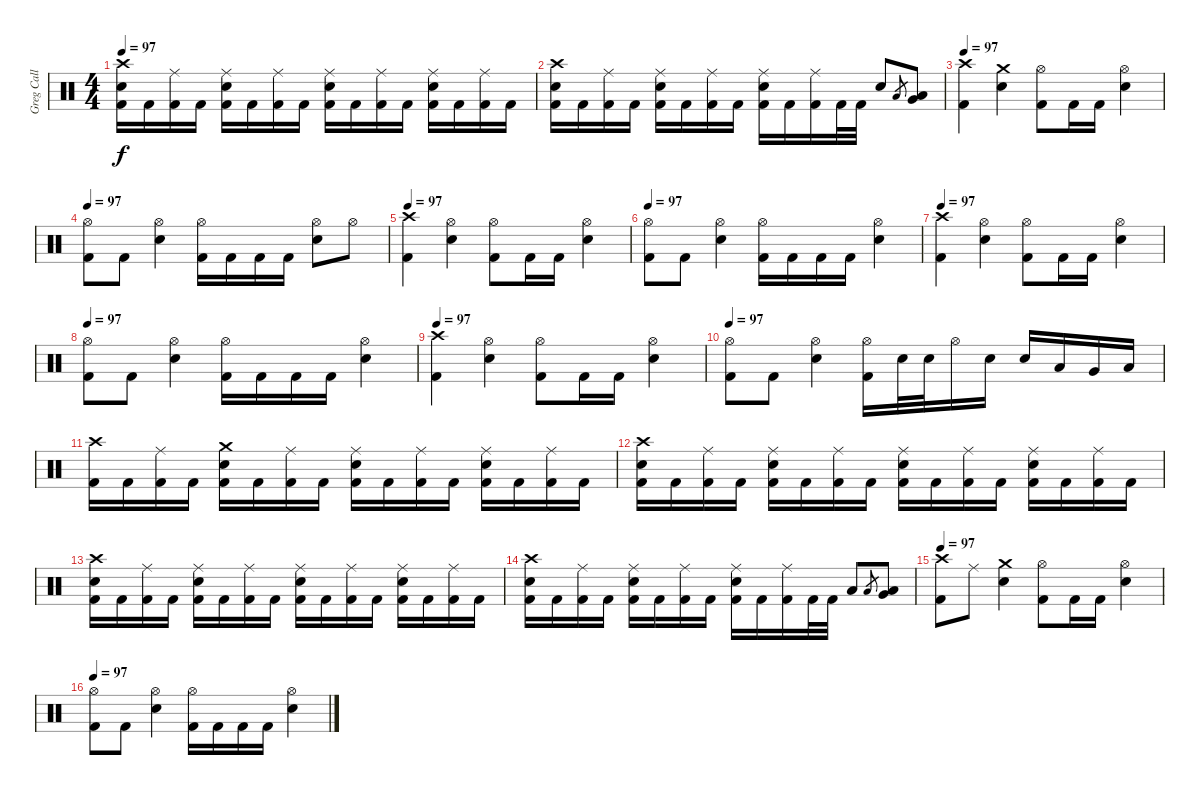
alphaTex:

\track ("Greg Call (Drums)" "Greg Call ") {instrument percussion}
\staff {score}
\articulation defaults
\ts (4 4)
\tempo 97
\clef neutral
\ks c
("Snare (hit) 2" "Crash high (hit)" "Kick (hit) 2").16{dy f} "Kick (hit) 2".16 ("Ride (middle)" "Kick (hit) 2").16 "Kick (hit) 2".16 ("Snare (hit) 2" "Ride (middle)" "Kick (hit) 2").16 "Kick (hit) 2".16 ("Ride (middle)" "Kick (hit) 2").16 "Kick (hit) 2".16 ("Snare (hit) 2" "Ride (middle)" "Kick (hit) 2").16 "Kick (hit) 2".16 ("Ride (middle)" "Kick (hit) 2").16 "Kick (hit) 2".16 ("Ride (middle)" "Snare (hit) 2" "Kick (hit) 2").16 "Kick (hit) 2".16 ("Ride (middle)" "Kick (hit) 2").16 "Kick (hit) 2".16 |
("Snare (hit) 2" "Crash high (hit)" "Kick (hit) 2").16 "Kick (hit) 2".16 ("Ride (middle)" "Kick (hit) 2").16 "Kick (hit) 2".16 ("Snare (hit) 2" "Ride (middle)" "Kick (hit) 2").16 "Kick (hit) 2".16 ("Ride (middle)" "Kick (hit) 2").16 "Kick (hit) 2".16 ("Snare (hit) 2" "Ride (middle)" "Kick (hit) 2").16 "Kick (hit) 2".16 ("Ride (middle)" "Kick (hit) 2").16 "Kick (hit) 2".32 "Kick (hit) 2".32 "Snare (hit) 2".8 "Low Floor Tom (hit)".8{gr} ("Low Floor Tom (hit)" "Very Low Tom (hit)").8 |
\tempo 97
("Crash high (hit)" "Kick (hit) 2").4 ("Crash medium (hit)" "Snare (hit) 2").4 ("Hi-Hat (open)" "Kick (hit) 2").8 "Kick (hit) 2".16 "Kick (hit) 2".16 ("Hi-Hat (open)" "Snare (hit) 2").4 |
\tempo 97
("Hi-Hat (open)" "Kick (hit) 2").8 "Kick (hit) 2".8 ("Hi-Hat (open)" "Snare (hit) 2").4 ("Hi-Hat (open)" "Kick (hit) 2").16 "Kick (hit) 2".16 "Kick (hit) 2".16 "Kick (hit) 2".16 ("Hi-Hat (open)" "Snare (hit) 2").8 "Hi-Hat (open)".8 |
\tempo 97
("Crash high (hit)" "Kick (hit) 2").4 ("Hi-Hat (open)" "Snare (hit) 2").4 ("Hi-Hat (open)" "Kick (hit) 2").8 "Kick (hit) 2".16 "Kick (hit) 2".16 ("Hi-Hat (open)" "Snare (hit) 2").4 |
\tempo 97
("Hi-Hat (open)" "Kick (hit) 2").8 "Kick (hit) 2".8 ("Hi-Hat (open)" "Snare (hit) 2").4 ("Hi-Hat (open)" "Kick (hit) 2").16 "Kick (hit) 2".16 "Kick (hit) 2".16 "Kick (hit) 2".16 ("Hi-Hat (open)" "Snare (hit) 2").4 |
\tempo 97
("Crash high (hit)" "Kick (hit) 2").4 ("Hi-Hat (open)" "Snare (hit) 2").4 ("Hi-Hat (open)" "Kick (hit) 2").8 "Kick (hit) 2".16 "Kick (hit) 2".16 ("Hi-Hat (open)" "Snare (hit) 2").4 |
\tempo 97
("Hi-Hat (open)" "Kick (hit) 2").8 "Kick (hit) 2".8 ("Hi-Hat (open)" "Snare (hit) 2").4 ("Hi-Hat (open)" "Kick (hit) 2").16 "Kick (hit) 2".16 "Kick (hit) 2".16 "Kick (hit) 2".16 ("Hi-Hat (open)" "Snare (hit) 2").4 |
\tempo 97
("Crash high (hit)" "Kick (hit) 2").4 ("Hi-Hat (open)" "Snare (hit) 2").4 ("Hi-Hat (open)" "Kick (hit) 2").8 "Kick (hit) 2".16 "Kick (hit) 2".16 ("Hi-Hat (open)" "Snare (hit) 2").4 |
\tempo 97
("Hi-Hat (open)" "Kick (hit) 2").8 "Kick (hit) 2".8 ("Hi-Hat (open)" "Snare (hit) 2").4 ("Hi-Hat (open)" "Kick (hit) 2").16 "Snare (hit) 2".32 "Snare (hit) 2".32 "Hi-Hat (open)".16 "Snare (hit) 2".16 "Snare (hit) 2".16 "Low Tom (hit)".16 "Very Low Tom (hit)".16 "Low Floor Tom (hit)".16 |
("Crash high (hit)" "Kick (hit) 2").16 "Kick (hit) 2".16 ("Ride (middle)" "Kick (hit) 2").16 "Kick (hit) 2".16 ("Snare (hit) 2" "Crash medium (hit)" "Kick (hit) 2").16 "Kick (hit) 2".16 ("Ride (middle)" "Kick (hit) 2").16 "Kick (hit) 2".16 ("Snare (hit) 2" "Ride (middle)" "Kick (hit) 2").16 "Kick (hit) 2".16 ("Ride (middle)" "Kick (hit) 2").16 "Kick (hit) 2".16 ("Ride (middle)" "Snare (hit) 2" "Kick (hit) 2").16 "Kick (hit) 2".16 ("Ride (middle)" "Kick (hit) 2").16 "Kick (hit) 2".16 |
("Snare (hit) 2" "Crash high (hit)" "Kick (hit) 2").16 "Kick (hit) 2".16 ("Ride (middle)" "Kick (hit) 2").16 "Kick (hit) 2".16 ("Snare (hit) 2" "Ride (middle)" "Kick (hit) 2").16 "Kick (hit) 2".16 ("Ride (middle)" "Kick (hit) 2").16 "Kick (hit) 2".16 ("Snare (hit) 2" "Ride (middle)" "Kick (hit) 2").16 "Kick (hit) 2".16 ("Ride (middle)" "Kick (hit) 2").16 "Kick (hit) 2".16 ("Ride (middle)" "Snare (hit) 2" "Kick (hit) 2").16 "Kick (hit) 2".16 ("Ride (middle)" "Kick (hit) 2").16 "Kick (hit) 2".16 |
("Snare (hit) 2" "Crash high (hit)" "Kick (hit) 2").16 "Kick (hit) 2".16 ("Ride (middle)" "Kick (hit) 2").16 "Kick (hit) 2".16 ("Snare (hit) 2" "Ride (middle)" "Kick (hit) 2").16 "Kick (hit) 2".16 ("Ride (middle)" "Kick (hit) 2").16 "Kick (hit) 2".16 ("Snare (hit) 2" "Ride (middle)" "Kick (hit) 2").16 "Kick (hit) 2".16 ("Ride (middle)" "Kick (hit) 2").16 "Kick (hit) 2".16 ("Ride (middle)" "Snare (hit) 2" "Kick (hit) 2").16 "Kick (hit) 2".16 ("Ride (middle)" "Kick (hit) 2").16 "Kick (hit) 2".16 |
("Snare (hit) 2" "Crash high (hit)" "Kick (hit) 2").16 "Kick (hit) 2".16 ("Ride (middle)" "Kick (hit) 2").16 "Kick (hit) 2".16 ("Snare (hit) 2" "Ride (middle)" "Kick (hit) 2").16 "Kick (hit) 2".16 ("Ride (middle)" "Kick (hit) 2").16 "Kick (hit) 2".16 ("Snare (hit) 2" "Ride (middle)" "Kick (hit) 2").16 "Kick (hit) 2".16 ("Ride (middle)" "Kick (hit) 2").16 "Kick (hit) 2".32 "Kick (hit) 2".32 "Low Tom (hit)".8 "Low Floor Tom (hit)".8{gr} ("Low Floor Tom (hit)" "Very Low Tom (hit)").8 |
\tempo 97
("Crash high (hit)" "Kick (hit) 2").8 "Ride (middle)".8 ("Crash medium (hit)" "Snare (hit) 2").4 ("Hi-Hat (open)" "Kick (hit) 2").8 "Kick (hit) 2".16 "Kick (hit) 2".16 ("Hi-Hat (open)" "Snare (hit) 2").4 |
\tempo 97
("Hi-Hat (open)" "Kick (hit) 2").8 "Kick (hit) 2".8 ("Hi-Hat (open)" "Snare (hit) 2").4 ("Hi-Hat (open)" "Kick (hit) 2").16 "Kick (hit) 2".16 "Kick (hit) 2".16 "Kick (hit) 2".16 ("Hi-Hat (open)" "Snare (hit) 2").4
